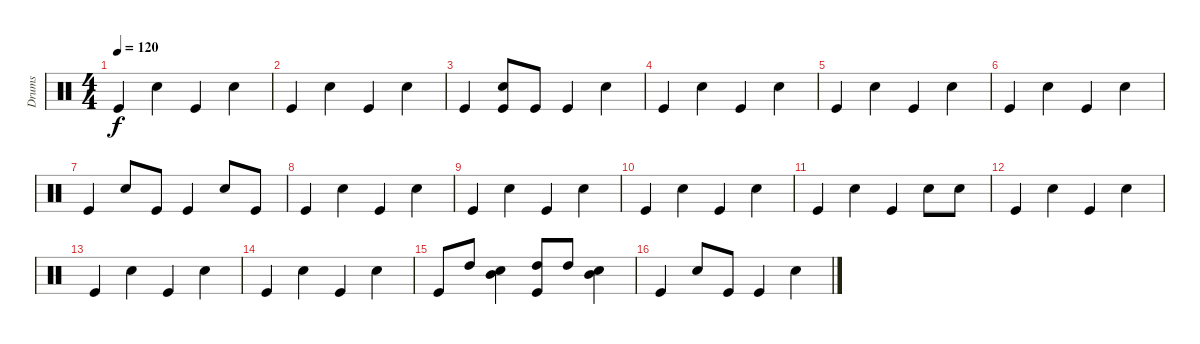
\track ("Drums" "Drums") {instrument percussion}
\staff {score}
\articulation defaults
\ts (4 4)
\tempo 120
\clef neutral
\ks c "Kick (hit)".4{dy f} "Snare (hit) 2".4 "Kick (hit)".4 "Snare (hit) 2".4
|
"Kick (hit)".4 "Snare (hit) 2".4 "Kick (hit)".4 "Snare (hit) 2".4 |
"Kick (hit)".4 ("Snare (hit) 2" "Kick (hit)").8 "Kick (hit)".8 "Kick (hit)".4 "Snare (hit) 2".4 |
"Kick (hit)".4 "Snare (hit) 2".4 "Kick (hit)".4 "Snare (hit) 2".4 |
"Kick (hit)".4 "Snare (hit) 2".4 "Kick (hit)".4 "Snare (hit) 2".4 |
"Kick (hit)".4 "Snare (hit) 2".4 "Kick (hit)".4 "Snare (hit) 2".4 |
"Kick (hit)".4 "Snare (hit) 2".8 "Kick (hit)".8 "Kick (hit)".4 "Snare (hit) 2".8 "Kick (hit)".8 |
"Kick (hit)".4 "Snare (hit) 2".4 "Kick (hit)".4 "Snare (hit) 2".4 |
"Kick (hit)".4 "Snare (hit) 2".4 "Kick (hit)".4 "Snare (hit) 2".4 |
"Kick (hit)".4 "Snare (hit) 2".4 "Kick (hit)".4 "Snare (hit) 2".4 |
"Kick (hit)".4 "Snare (hit) 2".4 "Kick (hit)".4 "Snare (hit) 2".8 "Snare (hit) 2".8 |
"Kick (hit)".4 "Snare (hit) 2".4 "Kick (hit)".4 "Snare (hit) 2".4 |
"Kick (hit)".4 "Snare (hit) 2".4 "Kick (hit)".4 "Snare (hit) 2".4 |
"Kick (hit)".4 "Snare (hit) 2".4 "Kick (hit)".4 "Snare (hit) 2".4 |
"Kick (hit)".8 "High Tom (hit)".8 ("Mid Tom (hit)" "Snare (hit) 2").4 ("High Tom (hit)" "Kick (hit)").8 "High Tom (hit)".8 ("Mid Tom (hit)" "Snare (hit) 2").4 |
"Kick (hit)".4 "Snare (hit) 2".8 "Kick (hit)".8 "Kick (hit)".4 "Snare (hit) 2".4
